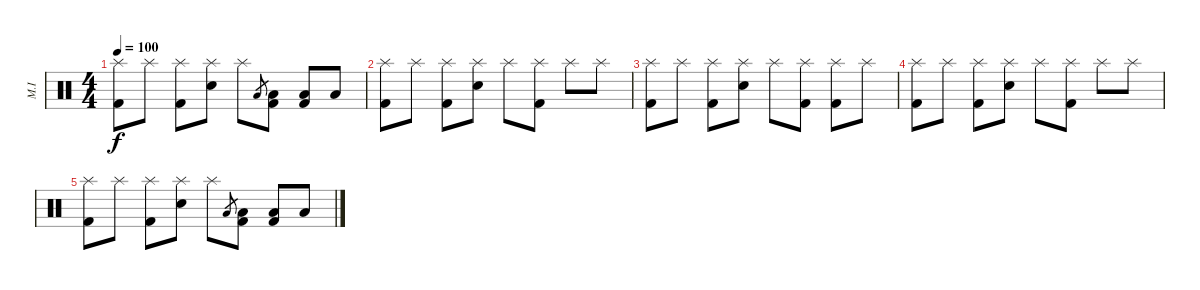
\track ("M.I" "M.I") {instrument percussion}
\staff {score}
\articulation defaults
\ts (4 4)
\tempo 100
\clef neutral
\ks c
("Splash (hit)" "Kick (hit) 2").8{dy f} "Splash (hit)".8 ("Splash (hit)" "Kick (hit) 2").8 ("Splash (hit)" "Snare (hit) 2").8 "Splash (hit)".8 "Low Tom (hit)".8{gr} ("Low Tom (hit)" "Kick (hit) 2").8 ("Low Floor Tom (hit)" "Kick (hit) 2").8 "Low Floor Tom (hit)".8 |
("Splash (hit)" "Kick (hit) 2").8{volume 0} "Splash (hit)".8 ("Splash (hit)" "Kick (hit) 2").8 ("Splash (hit)" "Snare (hit) 2").8 "Splash (hit)".8 ("Splash (hit)" "Kick (hit) 2").8 "Splash (hit)".8 "Splash (hit)".8 |
("Splash (hit)" "Kick (hit) 2").8 "Splash (hit)".8 ("Splash (hit)" "Kick (hit) 2").8 ("Splash (hit)" "Snare (hit) 2").8 "Splash (hit)".8 ("Splash (hit)" "Kick (hit) 2").8 ("Splash (hit)" "Kick (hit) 2").8 "Splash (hit)".8 |
("Splash (hit)" "Kick (hit) 2").8 "Splash (hit)".8 ("Splash (hit)" "Kick (hit) 2").8 ("Splash (hit)" "Snare (hit) 2").8 "Splash (hit)".8 ("Splash (hit)" "Kick (hit) 2").8 "Splash (hit)".8 "Splash (hit)".8 |
("Splash (hit)" "Kick (hit) 2").8 "Splash (hit)".8 ("Splash (hit)" "Kick (hit) 2").8 ("Splash (hit)" "Snare (hit) 2").8 "Splash (hit)".8 "Low Tom (hit)".8{gr} ("Low Tom (hit)" "Kick (hit) 2").8 ("Low Floor Tom (hit)" "Kick (hit) 2").8 "Low Floor Tom (hit)".8
